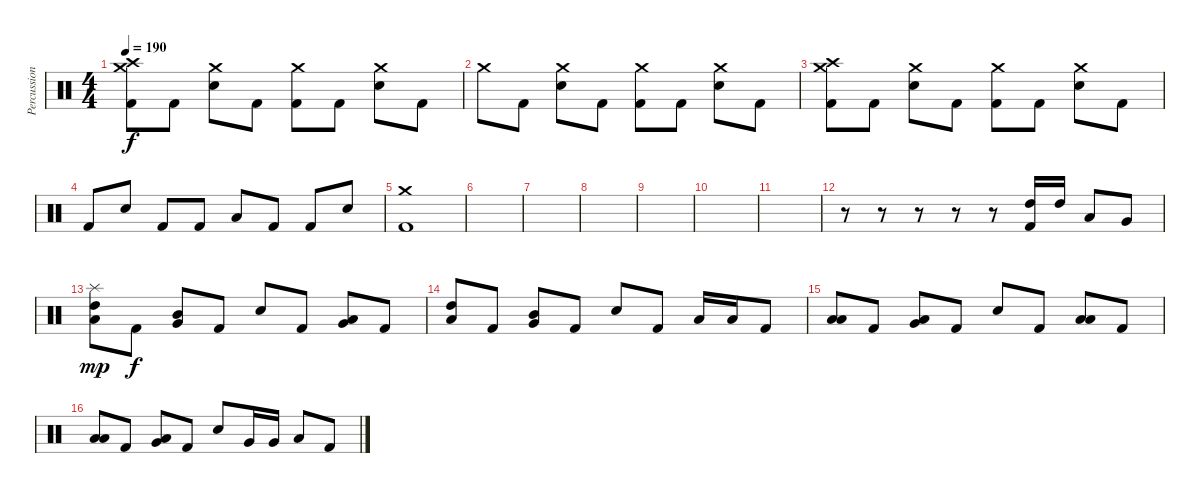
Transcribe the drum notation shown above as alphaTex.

\track ("Percussion" "Percussion") {instrument percussion}
\staff {score}
\articulation defaults
\ts (4 4)
\tempo 190
\clef neutral
\ks c
("Crash high (hit)" "Crash medium (hit)" "Kick (hit) 2").8{dy f} "Kick (hit) 2".8 ("Crash medium (hit)" "Electric Snare (hit)").8 "Kick (hit) 2".8 ("Crash medium (hit)" "Kick (hit) 2").8 "Kick (hit) 2".8 ("Crash medium (hit)" "Electric Snare (hit)").8 "Kick (hit) 2".8 |
"Crash medium (hit)".8 "Kick (hit) 2".8 ("Crash medium (hit)" "Electric Snare (hit)").8 "Kick (hit) 2".8 ("Crash medium (hit)" "Kick (hit) 2").8 "Kick (hit) 2".8 ("Crash medium (hit)" "Electric Snare (hit)").8 "Kick (hit) 2".8 |
("Crash high (hit)" "Crash medium (hit)" "Kick (hit) 2").8 "Kick (hit) 2".8 ("Crash medium (hit)" "Electric Snare (hit)").8 "Kick (hit) 2".8 ("Crash medium (hit)" "Kick (hit) 2").8 "Kick (hit) 2".8 ("Crash medium (hit)" "Electric Snare (hit)").8 "Kick (hit) 2".8 |
"Kick (hit) 2".8 "Electric Snare (hit)".8 "Kick (hit) 2".8 "Kick (hit) 2".8 "Low Tom (hit)".8 "Kick (hit) 2".8 "Kick (hit) 2".8 "Electric Snare (hit)".8 |
("Crash medium (hit)" "Kick (hit) 2").1 |
|
|
|
|
|
|
r.8 r.8 r.8 r.8 r.8 ("High Tom (hit)" "Kick (hit) 2").16 "High Tom (hit)".16 "Low Tom (hit)".8 "Very Low Tom (hit)".8 |
("Splash (hit)" "High Tom (hit)" "Low Tom (hit)").8{dy mp} "Kick (hit) 2".8{dy f} ("Mid Tom (hit)" "Very Low Tom (hit)").8 "Kick (hit) 2".8 "Electric Snare (hit)".8 "Kick (hit) 2".8 ("Very Low Tom (hit)" "Low Floor Tom (hit)").8 "Kick (hit) 2".8 |
("High Tom (hit)" "Low Tom (hit)").8 "Kick (hit) 2".8 ("Mid Tom (hit)" "Very Low Tom (hit)").8 "Kick (hit) 2".8 "Electric Snare (hit)".8 "Kick (hit) 2".8 "Low Floor Tom (hit)".16 "Low Floor Tom (hit)".16 "Kick (hit) 2".8 |
("Low Tom (hit)" "Low Tom (hit)").8 "Kick (hit) 2".8 ("Low Floor Tom (hit)" "Very Low Tom (hit)").8 "Kick (hit) 2".8 "Electric Snare (hit)".8 "Kick (hit) 2".8 ("Low Floor Tom (hit)" "Low Floor Tom (hit)").8 "Kick (hit) 2".8 |
("Low Tom (hit)" "Low Tom (hit)").8 "Kick (hit) 2".8 ("Low Floor Tom (hit)" "Very Low Tom (hit)").8 "Kick (hit) 2".8 "Electric Snare (hit)".8 "Very Low Tom (hit)".16 "Very Low Tom (hit)".16 "Low Floor Tom (hit)".8 "Kick (hit) 2".8
